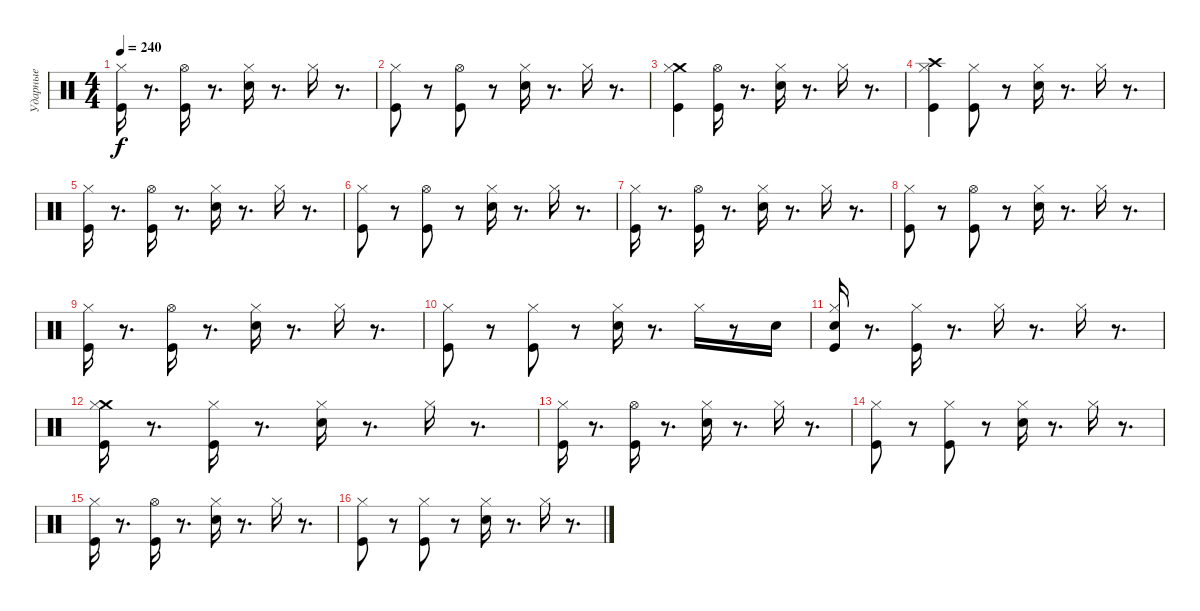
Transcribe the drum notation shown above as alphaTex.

\track ("Ударные" "Ударные") {instrument percussion}
\staff {score}
\articulation defaults
\ts (4 4)
\tempo 240
\clef neutral
\ks c
("Kick (hit)" "Hi-Hat (closed)").16{dy f} r.8{d} ("Kick (hit)" "Hi-Hat (open)").16 r.8{d} ("Snare (hit) 2" "Hi-Hat (closed)").16 r.8{d} "Hi-Hat (closed)".16 r.8{d} |
("Hi-Hat (closed)" "Kick (hit)").8 r.8 ("Kick (hit)" "Hi-Hat (open)").8 r.8 ("Snare (hit) 2" "Hi-Hat (closed)").16 r.8{d} "Hi-Hat (closed)".16 r.8{d} |
("Crash medium (hit)" "Kick (hit)" "Hi-Hat (closed)").4 ("Kick (hit)" "Hi-Hat (open)").16 r.8{d} ("Snare (hit) 2" "Hi-Hat (closed)").16 r.8{d} "Hi-Hat (closed)".16 r.8{d} |
("Crash high (hit)" "Hi-Hat (closed)" "Kick (hit)").4 ("Kick (hit)" "Hi-Hat (closed)").8 r.8 ("Snare (hit) 2" "Hi-Hat (closed)").16 r.8{d} "Hi-Hat (closed)".16 r.8{d} |
("Kick (hit)" "Hi-Hat (closed)").16 r.8{d} ("Kick (hit)" "Hi-Hat (open)").16 r.8{d} ("Snare (hit) 2" "Hi-Hat (closed)").16 r.8{d} "Hi-Hat (closed)".16 r.8{d} |
("Hi-Hat (closed)" "Kick (hit)").8 r.8 ("Kick (hit)" "Hi-Hat (open)").8 r.8 ("Snare (hit) 2" "Hi-Hat (closed)").16 r.8{d} "Hi-Hat (closed)".16 r.8{d} |
("Kick (hit)" "Hi-Hat (closed)").16 r.8{d} ("Kick (hit)" "Hi-Hat (open)").16 r.8{d} ("Snare (hit) 2" "Hi-Hat (closed)").16 r.8{d} "Hi-Hat (closed)".16 r.8{d} |
("Hi-Hat (closed)" "Kick (hit)").8 r.8 ("Kick (hit)" "Hi-Hat (open)").8 r.8 ("Snare (hit) 2" "Hi-Hat (closed)").16 r.8{d} "Hi-Hat (closed)".16 r.8{d} |
("Kick (hit)" "Hi-Hat (closed)").16 r.8{d} ("Kick (hit)" "Hi-Hat (open)").16 r.8{d} ("Snare (hit) 2" "Hi-Hat (closed)").16 r.8{d} "Hi-Hat (closed)".16 r.8{d} |
("Hi-Hat (closed)" "Kick (hit)").8 r.8 ("Kick (hit)" "Hi-Hat (closed)").8 r.8 ("Snare (hit) 2" "Hi-Hat (closed)").16 r.8{d} "Hi-Hat (closed)".16 r.8 "Snare (hit) 2".16 |
("Snare (hit) 2" "Kick (hit)" "Hi-Hat (closed)").16 r.8{d} ("Kick (hit)" "Hi-Hat (closed)").16 r.8{d} "Hi-Hat (closed)".16 r.8{d} "Hi-Hat (closed)".16 r.8{d} |
("Kick (hit)" "Crash medium (hit)" "Hi-Hat (closed)").16 r.8{d} ("Kick (hit)" "Hi-Hat (closed)").16 r.8{d} ("Snare (hit) 2" "Hi-Hat (closed)").16 r.8{d} "Hi-Hat (closed)".16 r.8{d} |
("Kick (hit)" "Hi-Hat (closed)").16 r.8{d} ("Kick (hit)" "Hi-Hat (open)").16 r.8{d} ("Snare (hit) 2" "Hi-Hat (closed)").16 r.8{d} "Hi-Hat (closed)".16 r.8{d} |
("Hi-Hat (closed)" "Kick (hit)").8 r.8 ("Kick (hit)" "Hi-Hat (closed)").8 r.8 ("Snare (hit) 2" "Hi-Hat (closed)").16 r.8{d} "Hi-Hat (closed)".16 r.8{d} |
("Kick (hit)" "Hi-Hat (closed)").16 r.8{d} ("Kick (hit)" "Hi-Hat (open)").16 r.8{d} ("Snare (hit) 2" "Hi-Hat (closed)").16 r.8{d} "Hi-Hat (closed)".16 r.8{d} |
("Hi-Hat (closed)" "Kick (hit)").8 r.8 ("Kick (hit)" "Hi-Hat (closed)").8 r.8 ("Snare (hit) 2" "Hi-Hat (closed)").16 r.8{d} "Hi-Hat (closed)".16 r.8{d}
